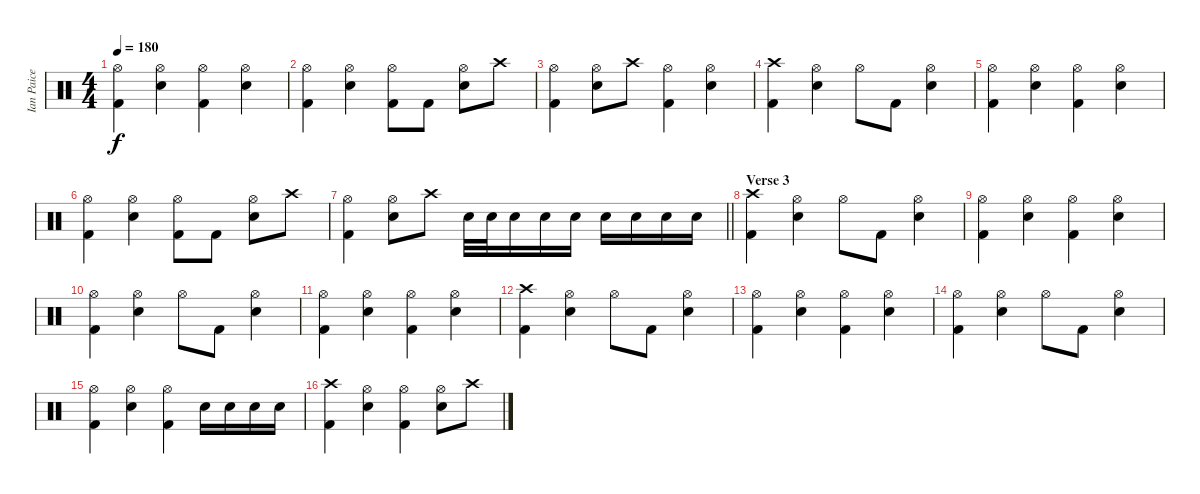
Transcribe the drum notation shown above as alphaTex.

\track ("Ian Paice" "Ian Paice") {instrument percussion}
\staff {score}
\articulation defaults
\ts (4 4)
\tempo 180
\clef neutral
\ks aminor
("Hi-Hat (open)" "Kick (hit) 2").4{dy f} ("Hi-Hat (open)" "Snare (hit) 2").4 ("Hi-Hat (open)" "Kick (hit) 2").4 ("Hi-Hat (open)" "Snare (hit) 2").4 |
\ks c
("Hi-Hat (open)" "Kick (hit) 2").4 ("Hi-Hat (open)" "Snare (hit) 2").4 ("Hi-Hat (open)" "Kick (hit) 2").8 "Kick (hit) 2".8 ("Hi-Hat (open)" "Snare (hit) 2").8 "Crash high (hit)".8 |
("Hi-Hat (open)" "Kick (hit) 2").4 ("Hi-Hat (open)" "Snare (hit) 2").8 "Crash high (hit)".8 ("Hi-Hat (open)" "Kick (hit) 2").4 ("Hi-Hat (open)" "Snare (hit) 2").4 |
("Crash high (hit)" "Kick (hit) 2").4 ("Hi-Hat (open)" "Snare (hit) 2").4 "Hi-Hat (open)".8 "Kick (hit) 2".8 ("Hi-Hat (open)" "Snare (hit) 2").4 |
("Hi-Hat (open)" "Kick (hit) 2").4 ("Hi-Hat (open)" "Snare (hit) 2").4 ("Hi-Hat (open)" "Kick (hit) 2").4 ("Hi-Hat (open)" "Snare (hit) 2").4 |
("Hi-Hat (open)" "Kick (hit) 2").4 ("Hi-Hat (open)" "Snare (hit) 2").4 ("Hi-Hat (open)" "Kick (hit) 2").8 "Kick (hit) 2".8 ("Hi-Hat (open)" "Snare (hit) 2").8 "Crash high (hit)".8 |
\barLineRight lightlight
("Hi-Hat (open)" "Kick (hit) 2").4 ("Hi-Hat (open)" "Snare (hit) 2").8 "Crash high (hit)".8 "Snare (hit) 2".32 "Snare (hit) 2".32 "Snare (hit) 2".16 "Snare (hit) 2".16 "Snare (hit) 2".16 "Snare (hit) 2".16 "Snare (hit) 2".16 "Snare (hit) 2".16 "Snare (hit) 2".16 |
\section ("" "Verse 3")
("Crash high (hit)" "Kick (hit) 2").4 ("Hi-Hat (open)" "Snare (hit) 2").4 "Hi-Hat (open)".8 "Kick (hit) 2".8 ("Hi-Hat (open)" "Snare (hit) 2").4 |
("Hi-Hat (open)" "Kick (hit) 2").4 ("Hi-Hat (open)" "Snare (hit) 2").4 ("Hi-Hat (open)" "Kick (hit) 2").4 ("Hi-Hat (open)" "Snare (hit) 2").4 |
\ks aminor
("Hi-Hat (open)" "Kick (hit) 2").4 ("Hi-Hat (open)" "Snare (hit) 2").4 "Hi-Hat (open)".8 "Kick (hit) 2".8 ("Hi-Hat (open)" "Snare (hit) 2").4 |
("Hi-Hat (open)" "Kick (hit) 2").4 ("Hi-Hat (open)" "Snare (hit) 2").4 ("Hi-Hat (open)" "Kick (hit) 2").4 ("Hi-Hat (open)" "Snare (hit) 2").4 |
\ks c
("Crash high (hit)" "Kick (hit) 2").4 ("Hi-Hat (open)" "Snare (hit) 2").4 "Hi-Hat (open)".8 "Kick (hit) 2".8 ("Hi-Hat (open)" "Snare (hit) 2").4 |
("Hi-Hat (open)" "Kick (hit) 2").4 ("Hi-Hat (open)" "Snare (hit) 2").4 ("Hi-Hat (open)" "Kick (hit) 2").4 ("Hi-Hat (open)" "Snare (hit) 2").4 |
\ks aminor
("Hi-Hat (open)" "Kick (hit) 2").4 ("Hi-Hat (open)" "Snare (hit) 2").4 "Hi-Hat (open)".8 "Kick (hit) 2".8 ("Hi-Hat (open)" "Snare (hit) 2").4 |
("Hi-Hat (open)" "Kick (hit) 2").4 ("Hi-Hat (open)" "Snare (hit) 2").4 ("Hi-Hat (open)" "Kick (hit) 2").4 "Snare (hit) 2".16 "Snare (hit) 2".16 "Snare (hit) 2".16 "Snare (hit) 2".16 |
("Crash high (hit)" "Kick (hit) 2").4 ("Hi-Hat (open)" "Snare (hit) 2").4 ("Hi-Hat (open)" "Kick (hit) 2").4 ("Hi-Hat (open)" "Snare (hit) 2").8 "Crash high (hit)".8
